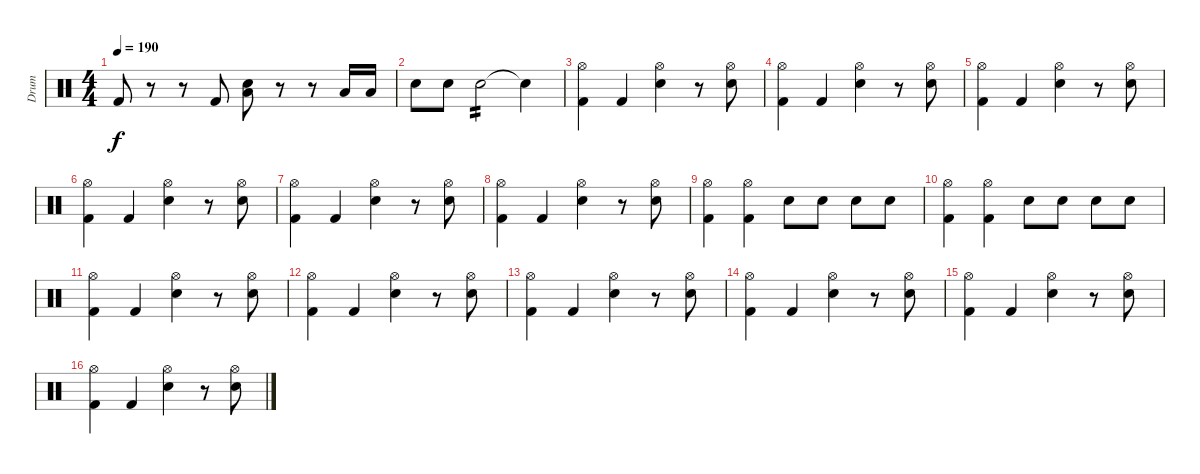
\track ("Drum" "Drum") {instrument percussion}
\staff {score}
\articulation defaults
\ts (4 4)
\tempo 190
\clef neutral
\ks c "Kick (hit) 2".8{dy f}
r.8 r.8 "Kick (hit) 2".8 ("Snare (hit) 2" "Low Floor Tom (hit)").8 r.8 r.8 "Low Tom (hit)".16 "Low Tom (hit)".16 |
"Snare (hit) 2".8 "Snare (hit) 2".8 "Snare (hit) 2".2{tp 2} "Snare (hit)"{t}.4 |
("Kick (hit) 2" "Hi-Hat (open)").4 "Kick (hit) 2".4 ("Snare (hit) 2" "Hi-Hat (open)").4 r.8 ("Snare (hit) 2" "Hi-Hat (open)").8 |
("Kick (hit) 2" "Hi-Hat (open)").4 "Kick (hit) 2".4 ("Snare (hit) 2" "Hi-Hat (open)").4 r.8 ("Snare (hit) 2" "Hi-Hat (open)").8 |
("Kick (hit) 2" "Hi-Hat (open)").4 "Kick (hit) 2".4 ("Snare (hit) 2" "Hi-Hat (open)").4 r.8 ("Snare (hit) 2" "Hi-Hat (open)").8 |
("Kick (hit) 2" "Hi-Hat (open)").4 "Kick (hit) 2".4 ("Snare (hit) 2" "Hi-Hat (open)").4 r.8 ("Snare (hit) 2" "Hi-Hat (open)").8 |
("Kick (hit) 2" "Hi-Hat (open)").4 "Kick (hit) 2".4 ("Snare (hit) 2" "Hi-Hat (open)").4 r.8 ("Snare (hit) 2" "Hi-Hat (open)").8 |
("Kick (hit) 2" "Hi-Hat (open)").4 "Kick (hit) 2".4 ("Snare (hit) 2" "Hi-Hat (open)").4 r.8 ("Snare (hit) 2" "Hi-Hat (open)").8 |
("Kick (hit) 2" "Hi-Hat (open)").4 ("Kick (hit) 2" "Hi-Hat (open)").4 "Snare (hit) 2".8 "Snare (hit) 2".8 "Snare (hit) 2".8 "Snare (hit) 2".8 |
("Kick (hit) 2" "Hi-Hat (open)").4 ("Kick (hit) 2" "Hi-Hat (open)").4 "Snare (hit) 2".8 "Snare (hit) 2".8 "Snare (hit) 2".8 "Snare (hit) 2".8 |
("Kick (hit) 2" "Hi-Hat (open)").4 "Kick (hit) 2".4 ("Snare (hit) 2" "Hi-Hat (open)").4 r.8 ("Snare (hit) 2" "Hi-Hat (open)").8 |
("Kick (hit) 2" "Hi-Hat (open)").4 "Kick (hit) 2".4 ("Snare (hit) 2" "Hi-Hat (open)").4 r.8 ("Snare (hit) 2" "Hi-Hat (open)").8 |
("Kick (hit) 2" "Hi-Hat (open)").4 "Kick (hit) 2".4 ("Snare (hit) 2" "Hi-Hat (open)").4 r.8 ("Snare (hit) 2" "Hi-Hat (open)").8 |
("Kick (hit) 2" "Hi-Hat (open)").4 "Kick (hit) 2".4 ("Snare (hit) 2" "Hi-Hat (open)").4 r.8 ("Snare (hit) 2" "Hi-Hat (open)").8 |
("Kick (hit) 2" "Hi-Hat (open)").4 "Kick (hit) 2".4 ("Snare (hit) 2" "Hi-Hat (open)").4 r.8 ("Snare (hit) 2" "Hi-Hat (open)").8 |
("Kick (hit) 2" "Hi-Hat (open)").4 "Kick (hit) 2".4 ("Snare (hit) 2" "Hi-Hat (open)").4 r.8 ("Snare (hit) 2" "Hi-Hat (open)").8
